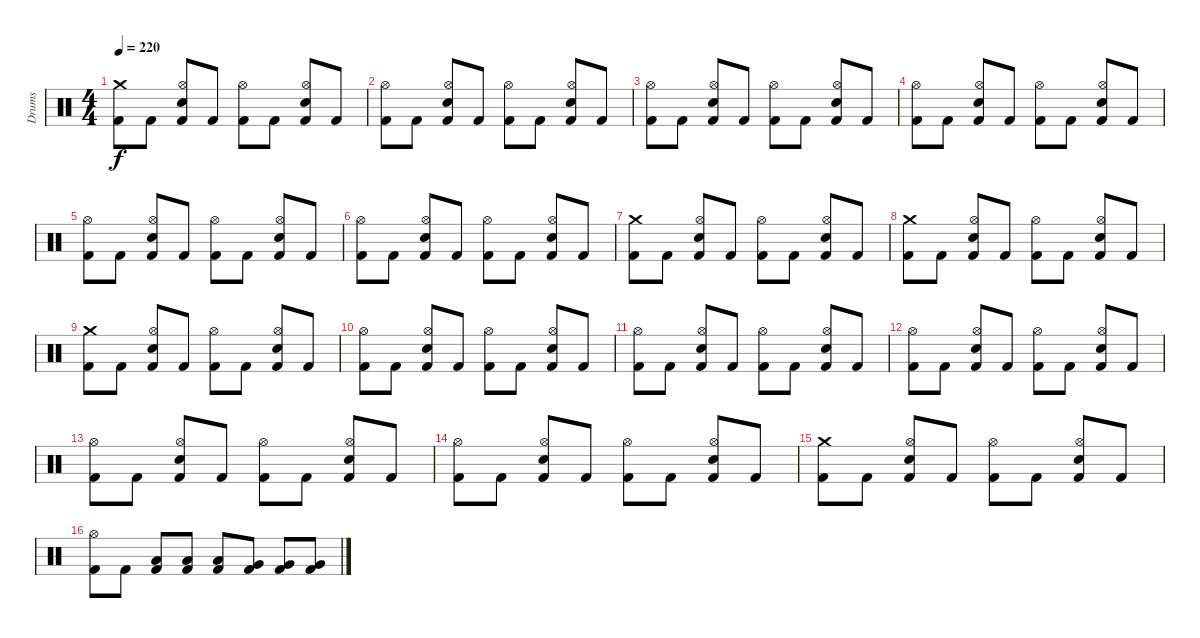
\track ("Drums" "Drums") {instrument percussion}
\staff {score}
\articulation defaults
\ts (4 4)
\tempo 220
\clef neutral
\ks c
("Crash medium (hit)" "Kick (hit) 2").8{dy f} "Kick (hit) 2".8 ("Hi-Hat (open)" "Electric Snare (hit)" "Kick (hit) 2").8 "Kick (hit) 2".8 ("Hi-Hat (open)" "Kick (hit) 2").8 "Kick (hit) 2".8 ("Hi-Hat (open)" "Electric Snare (hit)" "Kick (hit) 2").8 "Kick (hit) 2".8 |
("Hi-Hat (open)" "Kick (hit) 2").8 "Kick (hit) 2".8 ("Hi-Hat (open)" "Electric Snare (hit)" "Kick (hit) 2").8 "Kick (hit) 2".8 ("Hi-Hat (open)" "Kick (hit) 2").8 "Kick (hit) 2".8 ("Hi-Hat (open)" "Electric Snare (hit)" "Kick (hit) 2").8 "Kick (hit) 2".8 |
("Hi-Hat (open)" "Kick (hit) 2").8 "Kick (hit) 2".8 ("Hi-Hat (open)" "Electric Snare (hit)" "Kick (hit) 2").8 "Kick (hit) 2".8 ("Hi-Hat (open)" "Kick (hit) 2").8 "Kick (hit) 2".8 ("Hi-Hat (open)" "Electric Snare (hit)" "Kick (hit) 2").8 "Kick (hit) 2".8 |
("Hi-Hat (open)" "Kick (hit) 2").8 "Kick (hit) 2".8 ("Hi-Hat (open)" "Electric Snare (hit)" "Kick (hit) 2").8 "Kick (hit) 2".8 ("Hi-Hat (open)" "Kick (hit) 2").8 "Kick (hit) 2".8 ("Hi-Hat (open)" "Electric Snare (hit)" "Kick (hit) 2").8 "Kick (hit) 2".8 |
("Hi-Hat (open)" "Kick (hit) 2").8 "Kick (hit) 2".8 ("Hi-Hat (open)" "Electric Snare (hit)" "Kick (hit) 2").8 "Kick (hit) 2".8 ("Hi-Hat (open)" "Kick (hit) 2").8 "Kick (hit) 2".8 ("Hi-Hat (open)" "Electric Snare (hit)" "Kick (hit) 2").8 "Kick (hit) 2".8 |
("Hi-Hat (open)" "Kick (hit) 2").8 "Kick (hit) 2".8 ("Hi-Hat (open)" "Electric Snare (hit)" "Kick (hit) 2").8 "Kick (hit) 2".8 ("Hi-Hat (open)" "Kick (hit) 2").8 "Kick (hit) 2".8 ("Hi-Hat (open)" "Electric Snare (hit)" "Kick (hit) 2").8 "Kick (hit) 2".8 |
("Crash medium (hit)" "Kick (hit) 2").8 "Kick (hit) 2".8 ("Hi-Hat (open)" "Electric Snare (hit)" "Kick (hit) 2").8 "Kick (hit) 2".8 ("Hi-Hat (open)" "Kick (hit) 2").8 "Kick (hit) 2".8 ("Hi-Hat (open)" "Electric Snare (hit)" "Kick (hit) 2").8 "Kick (hit) 2".8 |
("Crash medium (hit)" "Kick (hit) 2").8 "Kick (hit) 2".8 ("Hi-Hat (open)" "Electric Snare (hit)" "Kick (hit) 2").8 "Kick (hit) 2".8 ("Hi-Hat (open)" "Kick (hit) 2").8 "Kick (hit) 2".8 ("Hi-Hat (open)" "Electric Snare (hit)" "Kick (hit) 2").8 "Kick (hit) 2".8 |
("Crash medium (hit)" "Kick (hit) 2").8 "Kick (hit) 2".8 ("Hi-Hat (open)" "Electric Snare (hit)" "Kick (hit) 2").8 "Kick (hit) 2".8 ("Hi-Hat (open)" "Kick (hit) 2").8 "Kick (hit) 2".8 ("Hi-Hat (open)" "Electric Snare (hit)" "Kick (hit) 2").8 "Kick (hit) 2".8 |
("Hi-Hat (open)" "Kick (hit) 2").8 "Kick (hit) 2".8 ("Hi-Hat (open)" "Electric Snare (hit)" "Kick (hit) 2").8 "Kick (hit) 2".8 ("Hi-Hat (open)" "Kick (hit) 2").8 "Kick (hit) 2".8 ("Hi-Hat (open)" "Electric Snare (hit)" "Kick (hit) 2").8 "Kick (hit) 2".8 |
("Hi-Hat (open)" "Kick (hit) 2").8 "Kick (hit) 2".8 ("Hi-Hat (open)" "Electric Snare (hit)" "Kick (hit) 2").8 "Kick (hit) 2".8 ("Hi-Hat (open)" "Kick (hit) 2").8 "Kick (hit) 2".8 ("Hi-Hat (open)" "Electric Snare (hit)" "Kick (hit) 2").8 "Kick (hit) 2".8 |
("Hi-Hat (open)" "Kick (hit) 2").8 "Kick (hit) 2".8 ("Hi-Hat (open)" "Electric Snare (hit)" "Kick (hit) 2").8 "Kick (hit) 2".8 ("Hi-Hat (open)" "Kick (hit) 2").8 "Kick (hit) 2".8 ("Hi-Hat (open)" "Electric Snare (hit)" "Kick (hit) 2").8 "Kick (hit) 2".8 |
("Hi-Hat (open)" "Kick (hit) 2").8 "Kick (hit) 2".8 ("Hi-Hat (open)" "Electric Snare (hit)" "Kick (hit) 2").8 "Kick (hit) 2".8 ("Hi-Hat (open)" "Kick (hit) 2").8 "Kick (hit) 2".8 ("Hi-Hat (open)" "Electric Snare (hit)" "Kick (hit) 2").8 "Kick (hit) 2".8 |
("Hi-Hat (open)" "Kick (hit) 2").8 "Kick (hit) 2".8 ("Hi-Hat (open)" "Electric Snare (hit)" "Kick (hit) 2").8 "Kick (hit) 2".8 ("Hi-Hat (open)" "Kick (hit) 2").8 "Kick (hit) 2".8 ("Hi-Hat (open)" "Electric Snare (hit)" "Kick (hit) 2").8 "Kick (hit) 2".8 |
("Crash medium (hit)" "Kick (hit) 2").8 "Kick (hit) 2".8 ("Hi-Hat (open)" "Electric Snare (hit)" "Kick (hit) 2").8 "Kick (hit) 2".8 ("Hi-Hat (open)" "Kick (hit) 2").8 "Kick (hit) 2".8 ("Hi-Hat (open)" "Electric Snare (hit)" "Kick (hit) 2").8 "Kick (hit) 2".8 |
("Hi-Hat (open)" "Kick (hit) 2").8 "Kick (hit) 2".8 ("Low Tom (hit)" "Kick (hit) 2").8 ("Low Tom (hit)" "Kick (hit) 2").8 ("Low Tom (hit)" "Kick (hit) 2").8 ("Very Low Tom (hit)" "Kick (hit) 2").8 ("Very Low Tom (hit)" "Kick (hit) 2").8 ("Very Low Tom (hit)" "Kick (hit) 2").8
